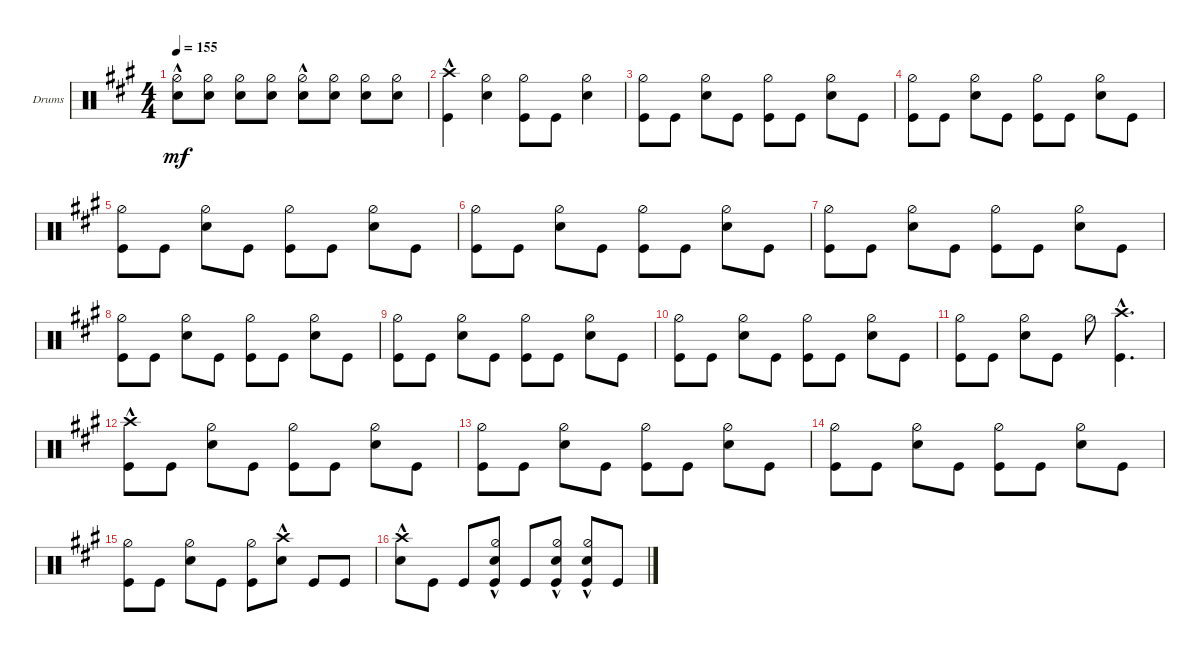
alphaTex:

\defaultSystemsLayout 4
\bracketExtendMode groupsimilarinstruments
\firstSystemTrackNameOrientation horizontal
\otherSystemsTrackNameOrientation horizontal
\track ("John Bonham" "Drums") {instrument percussion}
\staff {score}
\articulation defaults
\ts (4 4)
\tempo 155
\clef neutral
\ks a
("Snare (hit) 2"{hac} "Hi-Hat (half)"{hac}).8{dy mf} ("Hi-Hat (half)" "Snare (hit) 2").8 ("Hi-Hat (half)" "Snare (hit) 2").8 ("Hi-Hat (half)" "Snare (hit) 2").8 ("Snare (hit) 2"{hac} "Hi-Hat (half)"{hac}).8 ("Hi-Hat (half)" "Snare (hit) 2").8 ("Hi-Hat (half)" "Snare (hit) 2").8 ("Hi-Hat (half)" "Snare (hit) 2").8 |
("Kick (hit)" "Crash high (hit)"{hac}).4 ("Hi-Hat (half)" "Snare (hit) 2").4 ("Hi-Hat (half)" "Kick (hit)").8 "Kick (hit)".8 ("Hi-Hat (half)" "Snare (hit) 2").4 |
("Hi-Hat (half)" "Kick (hit)").8 "Kick (hit)".8 ("Snare (hit) 2" "Hi-Hat (half)").8 "Kick (hit)".8 ("Kick (hit)" "Hi-Hat (half)").8 "Kick (hit)".8 ("Hi-Hat (half)" "Snare (hit) 2").8 "Kick (hit)".8 |
("Hi-Hat (half)" "Kick (hit)").8 "Kick (hit)".8 ("Snare (hit) 2" "Hi-Hat (half)").8 "Kick (hit)".8 ("Kick (hit)" "Hi-Hat (half)").8 "Kick (hit)".8 ("Hi-Hat (half)" "Snare (hit) 2").8 "Kick (hit)".8 |
("Hi-Hat (half)" "Kick (hit)").8 "Kick (hit)".8 ("Snare (hit) 2" "Hi-Hat (half)").8 "Kick (hit)".8 ("Kick (hit)" "Hi-Hat (half)").8 "Kick (hit)".8 ("Hi-Hat (half)" "Snare (hit) 2").8 "Kick (hit)".8 |
("Hi-Hat (half)" "Kick (hit)").8 "Kick (hit)".8 ("Snare (hit) 2" "Hi-Hat (half)").8 "Kick (hit)".8 ("Kick (hit)" "Hi-Hat (half)").8 "Kick (hit)".8 ("Hi-Hat (half)" "Snare (hit) 2").8 "Kick (hit)".8 |
("Hi-Hat (half)" "Kick (hit)").8 "Kick (hit)".8 ("Snare (hit) 2" "Hi-Hat (half)").8 "Kick (hit)".8 ("Kick (hit)" "Hi-Hat (half)").8 "Kick (hit)".8 ("Hi-Hat (half)" "Snare (hit) 2").8 "Kick (hit)".8 |
("Hi-Hat (half)" "Kick (hit)").8 "Kick (hit)".8 ("Snare (hit) 2" "Hi-Hat (half)").8 "Kick (hit)".8 ("Kick (hit)" "Hi-Hat (half)").8 "Kick (hit)".8 ("Hi-Hat (half)" "Snare (hit) 2").8 "Kick (hit)".8 |
("Hi-Hat (half)" "Kick (hit)").8 "Kick (hit)".8 ("Snare (hit) 2" "Hi-Hat (half)").8 "Kick (hit)".8 ("Kick (hit)" "Hi-Hat (half)").8 "Kick (hit)".8 ("Hi-Hat (half)" "Snare (hit) 2").8 "Kick (hit)".8 |
("Hi-Hat (half)" "Kick (hit)").8 "Kick (hit)".8 ("Snare (hit) 2" "Hi-Hat (half)").8 "Kick (hit)".8 ("Kick (hit)" "Hi-Hat (half)").8 "Kick (hit)".8 ("Hi-Hat (half)" "Snare (hit) 2").8 "Kick (hit)".8 |
("Kick (hit)" "Hi-Hat (half)").8 "Kick (hit)".8 ("Snare (hit) 2" "Hi-Hat (half)").8 "Kick (hit)".8 "Hi-Hat (half)".8 ("Crash high (hit)"{hac} "Kick (hit)").4{d} |
("Crash high (hit)"{hac} "Kick (hit)").8 "Kick (hit)".8 ("Hi-Hat (half)" "Snare (hit) 2").8 "Kick (hit)".8 ("Kick (hit)" "Hi-Hat (half)").8 "Kick (hit)".8 ("Hi-Hat (half)" "Snare (hit) 2").8 "Kick (hit)".8 |
("Kick (hit)" "Hi-Hat (half)").8 "Kick (hit)".8 ("Hi-Hat (half)" "Snare (hit) 2").8 "Kick (hit)".8 ("Kick (hit)" "Hi-Hat (half)").8 "Kick (hit)".8 ("Hi-Hat (half)" "Snare (hit) 2").8 "Kick (hit)".8 |
("Kick (hit)" "Hi-Hat (half)").8 "Kick (hit)".8 ("Hi-Hat (half)" "Snare (hit) 2").8 "Kick (hit)".8 ("Kick (hit)" "Hi-Hat (half)").8 "Kick (hit)".8 ("Hi-Hat (half)" "Snare (hit) 2").8 "Kick (hit)".8 |
("Hi-Hat (half)" "Kick (hit)").8 "Kick (hit)".8 ("Hi-Hat (half)" "Snare (hit) 2").8 "Kick (hit)".8 ("Kick (hit)" "Hi-Hat (half)").8 ("Crash high (hit)"{hac} "Snare (hit) 2"{hac}).8 "Kick (hit)".8 "Kick (hit)".8 |
("Crash high (hit)"{hac} "Snare (hit) 2"{hac}).8 "Kick (hit)".8 "Kick (hit)".8 ("Kick (hit)" "Snare (hit) 2"{hac} "Hi-Hat (half)"{hac}).8 "Kick (hit)".8 ("Kick (hit)" "Hi-Hat (half)"{hac} "Snare (hit) 2"{hac}).8 ("Kick (hit)" "Snare (hit) 2"{hac} "Hi-Hat (half)"{hac}).8 "Kick (hit)".8
